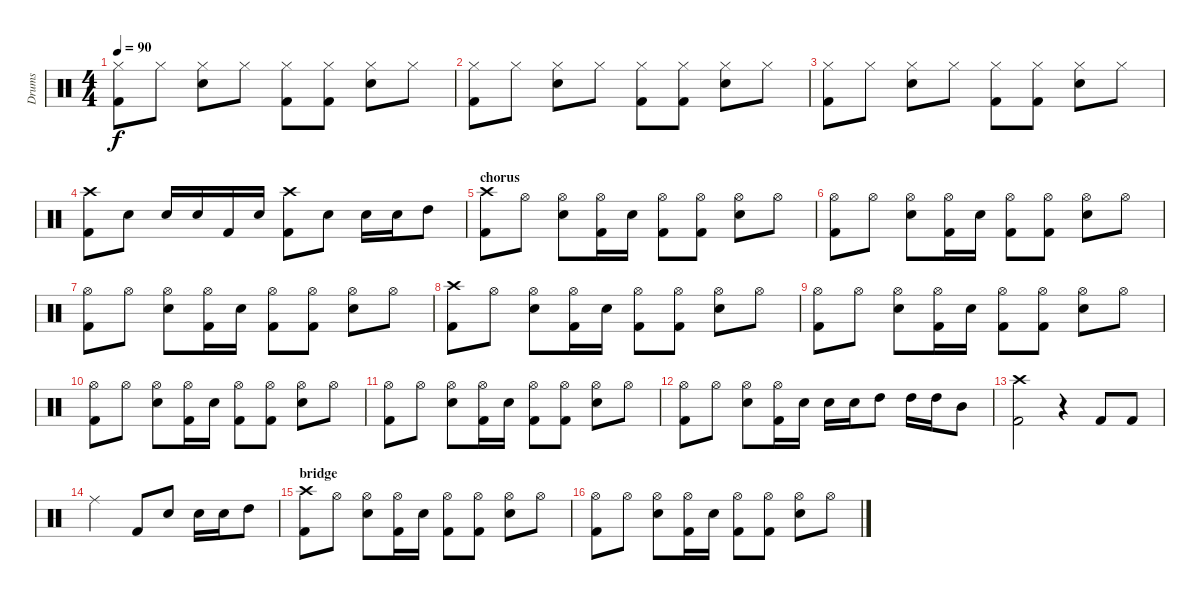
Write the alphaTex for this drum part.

\track ("Drums" "Drums") {instrument percussion}
\staff {score}
\articulation defaults
\ts (4 4)
\tempo 90
\clef neutral
\ks c
("Hi-Hat (closed)" "Kick (hit) 2").8{dy f} "Hi-Hat (closed)".8 ("Hi-Hat (closed)" "Snare (hit) 2").8 "Hi-Hat (closed)".8 ("Hi-Hat (closed)" "Kick (hit) 2").8 ("Hi-Hat (closed)" "Kick (hit) 2").8 ("Hi-Hat (closed)" "Snare (hit) 2").8 "Hi-Hat (closed)".8 |
("Hi-Hat (closed)" "Kick (hit) 2").8 "Hi-Hat (closed)".8 ("Hi-Hat (closed)" "Snare (hit) 2").8 "Hi-Hat (closed)".8 ("Hi-Hat (closed)" "Kick (hit) 2").8 ("Hi-Hat (closed)" "Kick (hit) 2").8 ("Hi-Hat (closed)" "Snare (hit) 2").8 "Hi-Hat (closed)".8 |
("Hi-Hat (closed)" "Kick (hit) 2").8 "Hi-Hat (closed)".8 ("Hi-Hat (closed)" "Snare (hit) 2").8 "Hi-Hat (closed)".8 ("Hi-Hat (closed)" "Kick (hit) 2").8 ("Hi-Hat (closed)" "Kick (hit) 2").8 ("Hi-Hat (closed)" "Snare (hit) 2").8 "Hi-Hat (closed)".8 |
("Crash high (hit)" "Kick (hit) 2").8 "Snare (hit) 2".8 "Snare (hit) 2".16 "Snare (hit) 2".16 "Kick (hit) 2".16 "Snare (hit) 2".16 ("Crash high (hit)" "Kick (hit) 2").8 "Snare (hit) 2".8 "Snare (hit) 2".16 "Snare (hit) 2".16 "High Tom (hit)".8 |
\section ("" "chorus")
("Crash high (hit)" "Kick (hit) 2").8 "Hi-Hat (open)".8 ("Hi-Hat (open)" "Snare (hit) 2").8 ("Hi-Hat (open)" "Kick (hit) 2").16 "Snare (hit) 2".16 ("Hi-Hat (open)" "Kick (hit) 2").8 ("Hi-Hat (open)" "Kick (hit) 2").8 ("Hi-Hat (open)" "Snare (hit) 2").8 "Hi-Hat (open)".8 |
("Hi-Hat (open)" "Kick (hit) 2").8 "Hi-Hat (open)".8 ("Hi-Hat (open)" "Snare (hit) 2").8 ("Hi-Hat (open)" "Kick (hit) 2").16 "Snare (hit) 2".16 ("Hi-Hat (open)" "Kick (hit) 2").8 ("Hi-Hat (open)" "Kick (hit) 2").8 ("Hi-Hat (open)" "Snare (hit) 2").8 "Hi-Hat (open)".8 |
("Hi-Hat (open)" "Kick (hit) 2").8 "Hi-Hat (open)".8 ("Hi-Hat (open)" "Snare (hit) 2").8 ("Hi-Hat (open)" "Kick (hit) 2").16 "Snare (hit) 2".16 ("Hi-Hat (open)" "Kick (hit) 2").8 ("Hi-Hat (open)" "Kick (hit) 2").8 ("Hi-Hat (open)" "Snare (hit) 2").8 "Hi-Hat (open)".8 |
("Crash high (hit)" "Kick (hit) 2").8 "Hi-Hat (open)".8 ("Hi-Hat (open)" "Snare (hit) 2").8 ("Hi-Hat (open)" "Kick (hit) 2").16 "Snare (hit) 2".16 ("Hi-Hat (open)" "Kick (hit) 2").8 ("Hi-Hat (open)" "Kick (hit) 2").8 ("Hi-Hat (open)" "Snare (hit) 2").8 "Hi-Hat (open)".8 |
("Hi-Hat (open)" "Kick (hit) 2").8 "Hi-Hat (open)".8 ("Hi-Hat (open)" "Snare (hit) 2").8 ("Hi-Hat (open)" "Kick (hit) 2").16 "Snare (hit) 2".16 ("Hi-Hat (open)" "Kick (hit) 2").8 ("Hi-Hat (open)" "Kick (hit) 2").8 ("Hi-Hat (open)" "Snare (hit) 2").8 "Hi-Hat (open)".8 |
("Hi-Hat (open)" "Kick (hit) 2").8 "Hi-Hat (open)".8 ("Hi-Hat (open)" "Snare (hit) 2").8 ("Hi-Hat (open)" "Kick (hit) 2").16 "Snare (hit) 2".16 ("Hi-Hat (open)" "Kick (hit) 2").8 ("Hi-Hat (open)" "Kick (hit) 2").8 ("Hi-Hat (open)" "Snare (hit) 2").8 "Hi-Hat (open)".8 |
("Hi-Hat (open)" "Kick (hit) 2").8 "Hi-Hat (open)".8 ("Hi-Hat (open)" "Snare (hit) 2").8 ("Hi-Hat (open)" "Kick (hit) 2").16 "Snare (hit) 2".16 ("Hi-Hat (open)" "Kick (hit) 2").8 ("Hi-Hat (open)" "Kick (hit) 2").8 ("Hi-Hat (open)" "Snare (hit) 2").8 "Hi-Hat (open)".8 |
("Hi-Hat (open)" "Kick (hit) 2").8 "Hi-Hat (open)".8 ("Hi-Hat (open)" "Snare (hit) 2").8 ("Hi-Hat (open)" "Kick (hit) 2").16 "Snare (hit) 2".16 "Snare (hit) 2".16 "Snare (hit) 2".16 "High Tom (hit)".8 "High Tom (hit)".16 "High Tom (hit)".16 "Mid Tom (hit)".8 |
("Kick (hit) 2" "Crash high (hit)").2 r.4 "Kick (hit) 2".8 "Kick (hit) 2".8 |
"Ride (middle)".2 "Kick (hit) 2".8 "Snare (hit) 2".8 "Snare (hit) 2".16 "Snare (hit) 2".16 "High Tom (hit)".8 |
\section ("" "bridge")
("Crash high (hit)" "Kick (hit) 2").8 "Hi-Hat (open)".8 ("Hi-Hat (open)" "Snare (hit) 2").8 ("Hi-Hat (open)" "Kick (hit) 2").16 "Snare (hit) 2".16 ("Hi-Hat (open)" "Kick (hit) 2").8 ("Hi-Hat (open)" "Kick (hit) 2").8 ("Hi-Hat (open)" "Snare (hit) 2").8 "Hi-Hat (open)".8 |
("Hi-Hat (open)" "Kick (hit) 2").8 "Hi-Hat (open)".8 ("Hi-Hat (open)" "Snare (hit) 2").8 ("Hi-Hat (open)" "Kick (hit) 2").16 "Snare (hit) 2".16 ("Hi-Hat (open)" "Kick (hit) 2").8 ("Hi-Hat (open)" "Kick (hit) 2").8 ("Hi-Hat (open)" "Snare (hit) 2").8 "Hi-Hat (open)".8
